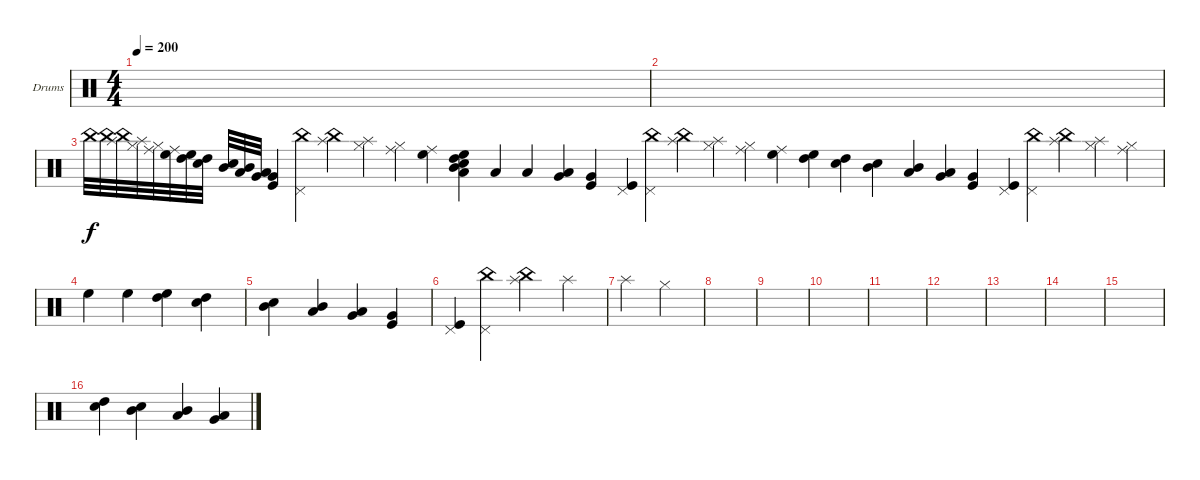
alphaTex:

\defaultSystemsLayout 4
\bracketExtendMode groupsimilarinstruments
\firstSystemTrackNameOrientation horizontal
\otherSystemsTrackNameOrientation horizontal
\track ("Drumkit" "Drums") {instrument percussion}
\staff {score}
\articulation defaults
\ts (4 4)
\tempo 200
\clef neutral
\ks c
|
|
"China (hit)".32 "China (hit)".32 ("China (hit)" "Splash (hit)").32 ("Splash (hit)" "Hi-Hat (closed)").32 ("Hi-Hat (closed)" "Ride (middle)").32 ("Ride (middle)" "High Floor Tom (hit)").32 ("High Floor Tom (hit)" "High Tom (hit)").32 ("High Tom (hit)" "Snare (hit) 2").32 ("Snare (hit) 2" "Mid Tom (hit)").32 ("Mid Tom (hit)" "Low Tom (hit)").32 ("Low Tom (hit)" "Very Low Tom (hit)").32 ("Very Low Tom (hit)" "Kick (hit)").4 ("Pedal Hi-Hat (hit)" "China (hit)").4 ("China (hit)" "Splash (hit)").4 ("Splash (hit)" "Hi-Hat (closed)").4 ("Hi-Hat (closed)" "Ride (middle)").4 ("Ride (middle)" "High Floor Tom (hit)").4 ("High Floor Tom (hit)" "High Tom (hit)" "Snare (hit) 2" "Mid Tom (hit)" "Low Tom (hit)").4 "Low Tom (hit)".4 "Low Tom (hit)".4 ("Low Tom (hit)" "Very Low Tom (hit)").4 ("Very Low Tom (hit)" "Kick (hit)").4 ("Kick (hit)" "Pedal Hi-Hat (hit)").4 ("Pedal Hi-Hat (hit)" "China (hit)").4 ("China (hit)" "Splash (hit)").4 ("Splash (hit)" "Hi-Hat (closed)").4 ("Hi-Hat (closed)" "Ride (middle)").4 ("Ride (middle)" "High Floor Tom (hit)").4 ("High Floor Tom (hit)" "High Tom (hit)").4 ("High Tom (hit)" "Snare (hit) 2").4 ("Snare (hit) 2" "Mid Tom (hit)").4 ("Mid Tom (hit)" "Low Tom (hit)").4 ("Low Tom (hit)" "Very Low Tom (hit)").4 ("Very Low Tom (hit)" "Kick (hit)").4 ("Kick (hit)" "Pedal Hi-Hat (hit)").4 ("Pedal Hi-Hat (hit)" "China (hit)").4 ("China (hit)" "Splash (hit)").4 ("Splash (hit)" "Hi-Hat (closed)").4 ("Hi-Hat (closed)" "Ride (middle)").4 |
"High Floor Tom (hit)".4 "High Floor Tom (hit)".4 ("High Floor Tom (hit)" "High Tom (hit)").4 ("High Tom (hit)" "Snare (hit) 2").4 |
("Snare (hit) 2" "Mid Tom (hit)").4 ("Mid Tom (hit)" "Low Tom (hit)").4 ("Low Tom (hit)" "Very Low Tom (hit)").4 ("Very Low Tom (hit)" "Kick (hit)").4 |
("Kick (hit)" "Pedal Hi-Hat (hit)").4 ("Pedal Hi-Hat (hit)" "China (hit)").4 ("China (hit)" "Splash (hit)").4 "Splash (hit)".4 |
"Splash (hit)".4 "Hi-Hat (closed)".4 |
|
|
|
|
|
|
|
|
("High Tom (hit)" "Snare (hit) 2").4 ("Snare (hit) 2" "Mid Tom (hit)").4 ("Mid Tom (hit)" "Low Tom (hit)").4 ("Low Tom (hit)" "Very Low Tom (hit)").4
